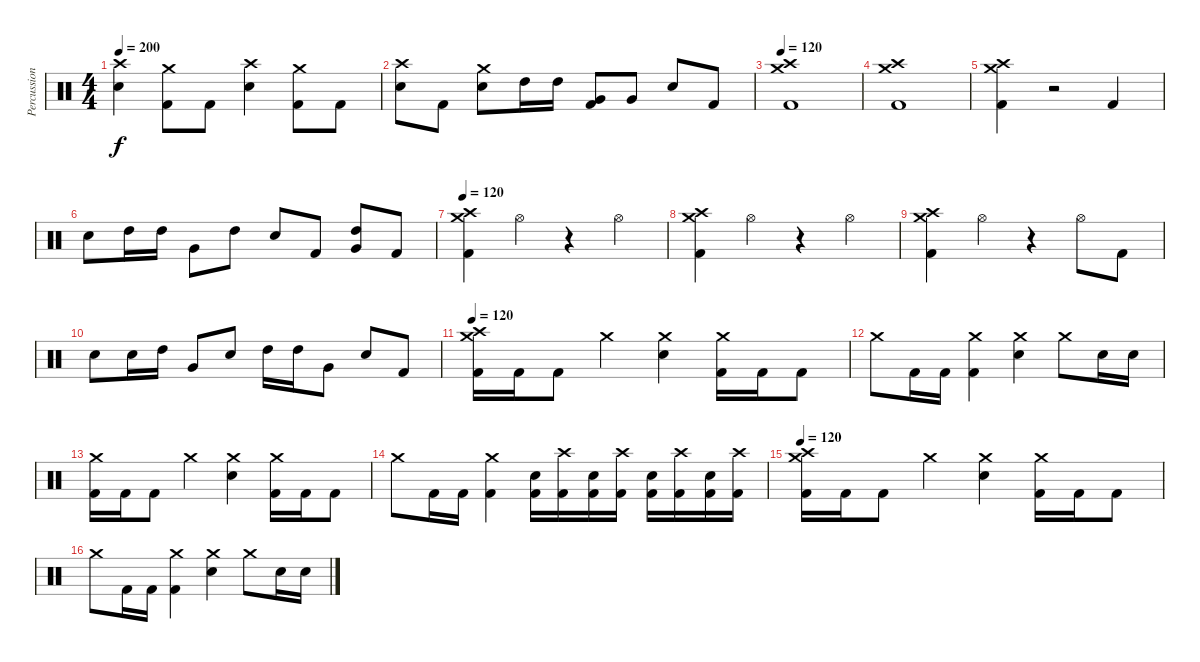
\track ("Percussion" "Percussion") {instrument percussion}
\staff {score}
\articulation defaults
\ts (4 4)
\tempo 200
\clef neutral
\ks c
("Crash high (hit)" "Electric Snare (hit)").4{dy f} ("Crash medium (hit)" "Kick (hit) 2").8 "Kick (hit) 2".8 ("Crash high (hit)" "Electric Snare (hit)").4 ("Crash medium (hit)" "Kick (hit) 2").8 "Kick (hit) 2".8 |
("Crash high (hit)" "Electric Snare (hit)").8 "Kick (hit) 2".8 ("Crash medium (hit)" "Electric Snare (hit)").8 "High Tom (hit)".16 "High Tom (hit)".16 ("Very Low Tom (hit)" "Kick (hit) 2").8 "Very Low Tom (hit)".8 "Electric Snare (hit)".8 "Kick (hit) 2".8 |
\tempo 120
("Crash high (hit)" "Crash medium (hit)" "Kick (hit) 2").1 |
("Crash high (hit)" "Crash medium (hit)" "Kick (hit) 2").1 |
("Crash high (hit)" "Crash medium (hit)" "Kick (hit) 2").4 r.2 "Kick (hit) 2".4 |
"Electric Snare (hit)".8 "High Tom (hit)".16 "High Tom (hit)".16 "Very Low Tom (hit)".8 "High Tom (hit)".8 "Electric Snare (hit)".8 "Kick (hit) 2".8 ("High Tom (hit)" "Very Low Tom (hit)").8 "Kick (hit) 2".8 |
\tempo 120
("Crash high (hit)" "Crash medium (hit)" "Kick (hit) 2").4 "Hi-Hat (open)".4 r.4 "Hi-Hat (open)".4 |
("Crash high (hit)" "Crash medium (hit)" "Kick (hit) 2").4 "Hi-Hat (open)".4 r.4 "Hi-Hat (open)".4 |
("Crash high (hit)" "Crash medium (hit)" "Kick (hit) 2").4 "Hi-Hat (open)".4 r.4 "Hi-Hat (open)".8 "Kick (hit) 2".8 |
"Electric Snare (hit)".8 "Electric Snare (hit)".16 "High Tom (hit)".16 "Very Low Tom (hit)".8 "Electric Snare (hit)".8 "High Tom (hit)".16 "High Tom (hit)".16 "Very Low Tom (hit)".8 "Electric Snare (hit)".8 "Kick (hit) 2".8 |
\tempo 120
("Crash high (hit)" "Crash medium (hit)" "Kick (hit) 2").16 "Kick (hit) 2".16 "Kick (hit) 2".8 "Crash medium (hit)".4 ("Crash medium (hit)" "Electric Snare (hit)").4 ("Crash medium (hit)" "Kick (hit) 2").16 "Kick (hit) 2".16 "Kick (hit) 2".8 |
"Crash medium (hit)".8 "Kick (hit) 2".16 "Kick (hit) 2".16 ("Crash medium (hit)" "Kick (hit) 2").4 ("Crash medium (hit)" "Electric Snare (hit)").4 "Crash medium (hit)".8 "Electric Snare (hit)".16 "Electric Snare (hit)".16 |
("Crash medium (hit)" "Kick (hit) 2").16 "Kick (hit) 2".16 "Kick (hit) 2".8 "Crash medium (hit)".4 ("Crash medium (hit)" "Electric Snare (hit)").4 ("Crash medium (hit)" "Kick (hit) 2").16 "Kick (hit) 2".16 "Kick (hit) 2".8 |
"Crash medium (hit)".8 "Kick (hit) 2".16 "Kick (hit) 2".16 ("Crash medium (hit)" "Kick (hit) 2").4 ("Electric Snare (hit)" "Kick (hit) 2").16 ("Crash high (hit)" "Kick (hit) 2").16 ("Electric Snare (hit)" "Kick (hit) 2").16 ("Crash high (hit)" "Kick (hit) 2").16 ("Electric Snare (hit)" "Kick (hit) 2").16 ("Crash high (hit)" "Kick (hit) 2").16 ("Electric Snare (hit)" "Kick (hit) 2").16 ("Crash high (hit)" "Kick (hit) 2").16 |
\tempo 120
("Crash high (hit)" "Crash medium (hit)" "Kick (hit) 2").16 "Kick (hit) 2".16 "Kick (hit) 2".8 "Crash medium (hit)".4 ("Crash medium (hit)" "Electric Snare (hit)").4 ("Crash medium (hit)" "Kick (hit) 2").16 "Kick (hit) 2".16 "Kick (hit) 2".8 |
"Crash medium (hit)".8 "Kick (hit) 2".16 "Kick (hit) 2".16 ("Crash medium (hit)" "Kick (hit) 2").4 ("Crash medium (hit)" "Electric Snare (hit)").4 "Crash medium (hit)".8 "Electric Snare (hit)".16 "Electric Snare (hit)".16
